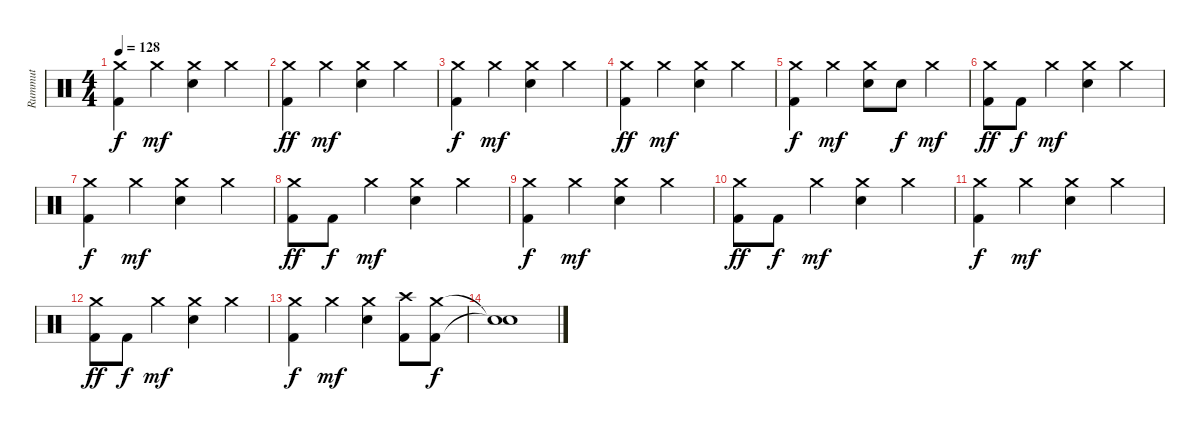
\track ("Rummut" "Rummut") {instrument percussion}
\staff {score}
\articulation defaults
\ts (4 4)
\tempo 128
\clef neutral
\ks c
("Kick (hit) 2" "Crash medium (hit)").4{dy f} "Crash medium (hit)".4{dy mf} ("Crash medium (hit)" "Snare (hit) 2").4 "Crash medium (hit)".4 |
("Kick (hit) 2" "Crash medium (hit)").4{dy ff} "Crash medium (hit)".4{dy mf} ("Crash medium (hit)" "Snare (hit) 2").4 "Crash medium (hit)".4 |
("Kick (hit) 2" "Crash medium (hit)").4{dy f} "Crash medium (hit)".4{dy mf} ("Crash medium (hit)" "Snare (hit) 2").4 "Crash medium (hit)".4 |
("Kick (hit) 2" "Crash medium (hit)").4{dy ff} "Crash medium (hit)".4{dy mf} ("Crash medium (hit)" "Snare (hit) 2").4 "Crash medium (hit)".4 |
("Kick (hit) 2" "Crash medium (hit)").4{dy f} "Crash medium (hit)".4{dy mf} ("Crash medium (hit)" "Snare (hit) 2").8 "Snare (hit) 2".8{dy f} "Crash medium (hit)".4{dy mf} |
("Kick (hit) 2" "Crash medium (hit)").8{dy ff} "Kick (hit) 2".8{dy f} "Crash medium (hit)".4{dy mf} ("Crash medium (hit)" "Snare (hit) 2").4 "Crash medium (hit)".4 |
("Kick (hit) 2" "Crash medium (hit)").4{dy f} "Crash medium (hit)".4{dy mf} ("Crash medium (hit)" "Snare (hit) 2").4 "Crash medium (hit)".4 |
("Kick (hit) 2" "Crash medium (hit)").8{dy ff} "Kick (hit) 2".8{dy f} "Crash medium (hit)".4{dy mf} ("Crash medium (hit)" "Snare (hit) 2").4 "Crash medium (hit)".4 |
("Kick (hit) 2" "Crash medium (hit)").4{dy f} "Crash medium (hit)".4{dy mf} ("Crash medium (hit)" "Snare (hit) 2").4 "Crash medium (hit)".4 |
("Kick (hit) 2" "Crash medium (hit)").8{dy ff} "Kick (hit) 2".8{dy f} "Crash medium (hit)".4{dy mf} ("Crash medium (hit)" "Snare (hit) 2").4 "Crash medium (hit)".4 |
("Kick (hit) 2" "Crash medium (hit)").4{dy f} "Crash medium (hit)".4{dy mf} ("Crash medium (hit)" "Snare (hit) 2").4 "Crash medium (hit)".4 |
("Kick (hit) 2" "Crash medium (hit)").8{dy ff} "Kick (hit) 2".8{dy f} "Crash medium (hit)".4{dy mf} ("Crash medium (hit)" "Snare (hit) 2").4 "Crash medium (hit)".4 |
("Kick (hit) 2" "Crash medium (hit)").4{dy f} "Crash medium (hit)".4{dy mf} ("Crash medium (hit)" "Snare (hit) 2").4 ("Kick (hit) 2" "Crash high (hit)").8 ("Kick (hit) 2" "Crash medium (hit)").8{dy f} |
("Snare (hit)"{t} "Snare (hit)"{t}).1
